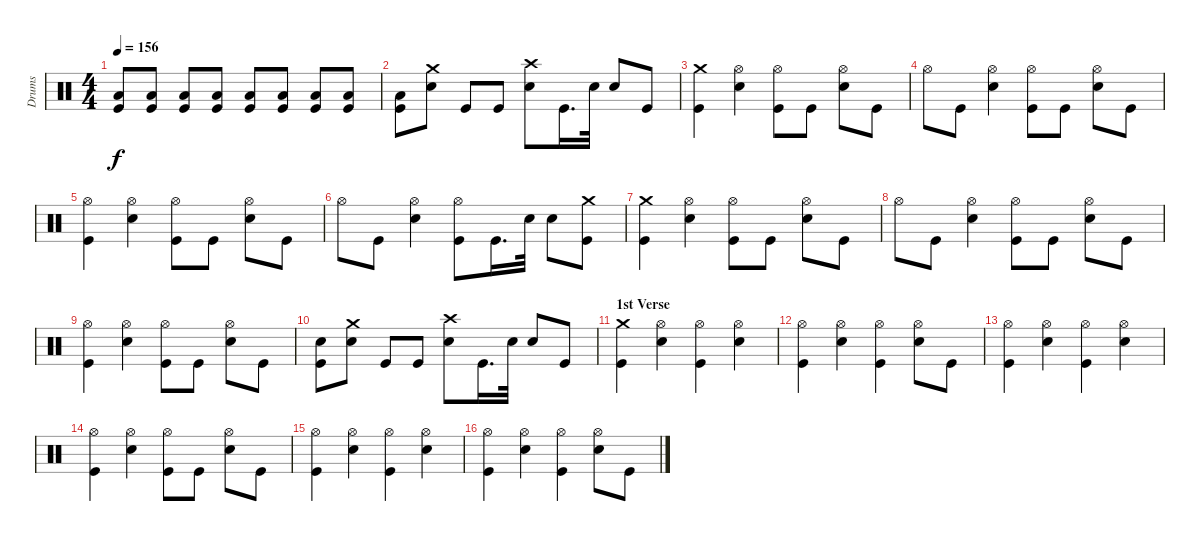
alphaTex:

\track ("Drums" "Drums") {instrument percussion}
\staff {score}
\articulation defaults
\ts (4 4)
\tempo 156
\clef neutral
\ks c
("Kick (hit)" "Low Floor Tom (hit)").8{dy f} ("Low Floor Tom (hit)" "Kick (hit)").8 ("Low Floor Tom (hit)" "Kick (hit)").8 ("Low Floor Tom (hit)" "Kick (hit)").8 ("Low Floor Tom (hit)" "Kick (hit)").8 ("Low Floor Tom (hit)" "Kick (hit)").8 ("Low Floor Tom (hit)" "Kick (hit)").8 ("Low Floor Tom (hit)" "Kick (hit)").8 |
("Low Floor Tom (hit)" "Kick (hit)").8 ("Crash medium (hit)" "Electric Snare (hit)").8 "Kick (hit)".8 "Kick (hit)".8 ("Electric Snare (hit)" "Crash high (hit)").8 "Kick (hit)".16{d} "Electric Snare (hit)".32 "Electric Snare (hit)".8 "Kick (hit)".8 |
("Kick (hit)" "Crash medium (hit)").4 ("Electric Snare (hit)" "Hi-Hat (open)").4 ("Kick (hit)" "Hi-Hat (open)").8 "Kick (hit)".8 ("Electric Snare (hit)" "Hi-Hat (open)").8 "Kick (hit)".8 |
"Hi-Hat (open)".8 "Kick (hit)".8 ("Electric Snare (hit)" "Hi-Hat (open)").4 ("Kick (hit)" "Hi-Hat (open)").8 "Kick (hit)".8 ("Electric Snare (hit)" "Hi-Hat (open)").8 "Kick (hit)".8 |
("Hi-Hat (open)" "Kick (hit)").4 ("Hi-Hat (open)" "Electric Snare (hit)").4 ("Hi-Hat (open)" "Kick (hit)").8 "Kick (hit)".8 ("Hi-Hat (open)" "Electric Snare (hit)").8 "Kick (hit)".8 |
"Hi-Hat (open)".8 "Kick (hit)".8 ("Electric Snare (hit)" "Hi-Hat (open)").4 ("Kick (hit)" "Hi-Hat (open)").8 "Kick (hit)".16{d} "Electric Snare (hit)".32 "Electric Snare (hit)".8 ("Kick (hit)" "Crash medium (hit)").8 |
("Kick (hit)" "Crash medium (hit)").4 ("Electric Snare (hit)" "Hi-Hat (open)").4 ("Kick (hit)" "Hi-Hat (open)").8 "Kick (hit)".8 ("Electric Snare (hit)" "Hi-Hat (open)").8 "Kick (hit)".8 |
"Hi-Hat (open)".8 "Kick (hit)".8 ("Electric Snare (hit)" "Hi-Hat (open)").4 ("Kick (hit)" "Hi-Hat (open)").8 "Kick (hit)".8 ("Electric Snare (hit)" "Hi-Hat (open)").8 "Kick (hit)".8 |
("Hi-Hat (open)" "Kick (hit)").4 ("Hi-Hat (open)" "Electric Snare (hit)").4 ("Hi-Hat (open)" "Kick (hit)").8 "Kick (hit)".8 ("Hi-Hat (open)" "Electric Snare (hit)").8 "Kick (hit)".8 |
("Electric Snare (hit)" "Kick (hit)").8 ("Crash medium (hit)" "Electric Snare (hit)").8 "Kick (hit)".8 "Kick (hit)".8 ("Electric Snare (hit)" "Crash high (hit)").8 "Kick (hit)".16{d} "Electric Snare (hit)".32 "Electric Snare (hit)".8 "Kick (hit)".8 |
\section ("" "1st Verse")
("Kick (hit)" "Crash medium (hit)").4 ("Hi-Hat (open)" "Electric Snare (hit)").4 ("Hi-Hat (open)" "Kick (hit)").4 ("Hi-Hat (open)" "Electric Snare (hit)").4 |
("Kick (hit)" "Hi-Hat (open)").4 ("Electric Snare (hit)" "Hi-Hat (open)").4 ("Kick (hit)" "Hi-Hat (open)").4 ("Electric Snare (hit)" "Hi-Hat (open)").8 "Kick (hit)".8 |
("Kick (hit)" "Hi-Hat (open)").4 ("Electric Snare (hit)" "Hi-Hat (open)").4 ("Kick (hit)" "Hi-Hat (open)").4 ("Electric Snare (hit)" "Hi-Hat (open)").4 |
("Kick (hit)" "Hi-Hat (open)").4 ("Electric Snare (hit)" "Hi-Hat (open)").4 ("Kick (hit)" "Hi-Hat (open)").8 "Kick (hit)".8 ("Electric Snare (hit)" "Hi-Hat (open)").8 "Kick (hit)".8 |
("Kick (hit)" "Hi-Hat (open)").4 ("Hi-Hat (open)" "Electric Snare (hit)").4 ("Hi-Hat (open)" "Kick (hit)").4 ("Hi-Hat (open)" "Electric Snare (hit)").4 |
("Kick (hit)" "Hi-Hat (open)").4 ("Electric Snare (hit)" "Hi-Hat (open)").4 ("Kick (hit)" "Hi-Hat (open)").4 ("Electric Snare (hit)" "Hi-Hat (open)").8 "Kick (hit)".8
